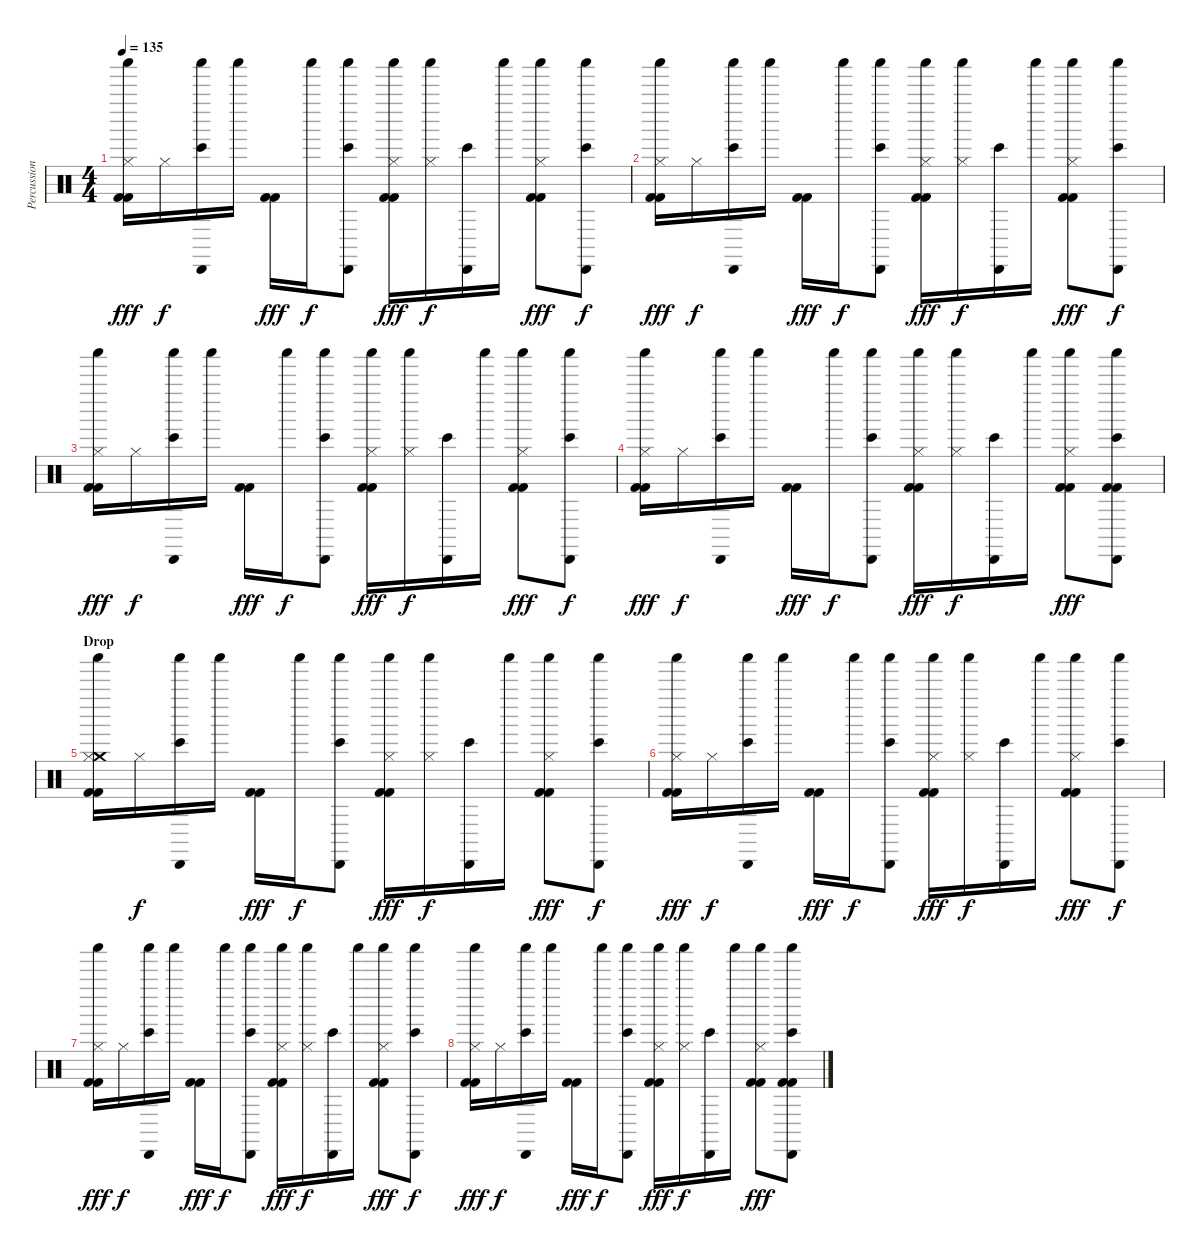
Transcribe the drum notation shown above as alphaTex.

\track ("Percussion" "Percussion") {instrument percussion}
\staff {score}
\articulation defaults
\ts (4 4)
\tempo 135
\clef neutral
\ks c
("Hi-Hat (closed)" "Kick (hit) 2" "Kick (hit) 2" "Shaker (hit)").16{dy fff} "Hi-Hat (closed)".16{dy f} ("Cabasa (hit)" "Bongo High (hit)" "Shaker (hit)").16 "Shaker (hit)".16 ("Kick (hit) 2" "Kick (hit) 2").16{dy fff} "Shaker (hit)".16{dy f} ("Cabasa (hit)" "Bongo High (hit)" "Shaker (hit)").8 ("Hi-Hat (closed)" "Kick (hit) 2" "Kick (hit) 2" "Shaker (hit)").16{dy fff} ("Hi-Hat (closed)" "Shaker (hit)").16{dy f} ("Cabasa (hit)" "Bongo High (hit)").16 "Shaker (hit)".16 ("Hi-Hat (closed)" "Kick (hit) 2" "Kick (hit) 2" "Shaker (hit)").8{dy fff} ("Cabasa (hit)" "Bongo High (hit)" "Shaker (hit)").8{dy f} |
("Hi-Hat (closed)" "Kick (hit) 2" "Kick (hit) 2" "Shaker (hit)").16{dy fff} "Hi-Hat (closed)".16{dy f} ("Cabasa (hit)" "Bongo High (hit)" "Shaker (hit)").16 "Shaker (hit)".16 ("Kick (hit) 2" "Kick (hit) 2").16{dy fff} "Shaker (hit)".16{dy f} ("Cabasa (hit)" "Bongo High (hit)" "Shaker (hit)").8 ("Hi-Hat (closed)" "Kick (hit) 2" "Kick (hit) 2" "Shaker (hit)").16{dy fff} ("Hi-Hat (closed)" "Shaker (hit)").16{dy f} ("Cabasa (hit)" "Bongo High (hit)").16 "Shaker (hit)".16 ("Hi-Hat (closed)" "Kick (hit) 2" "Kick (hit) 2" "Shaker (hit)").8{dy fff} ("Cabasa (hit)" "Bongo High (hit)" "Shaker (hit)").8{dy f} |
("Hi-Hat (closed)" "Kick (hit) 2" "Kick (hit) 2" "Shaker (hit)").16{dy fff} "Hi-Hat (closed)".16{dy f} ("Cabasa (hit)" "Bongo High (hit)" "Shaker (hit)").16 "Shaker (hit)".16 ("Kick (hit) 2" "Kick (hit) 2").16{dy fff} "Shaker (hit)".16{dy f} ("Cabasa (hit)" "Bongo High (hit)" "Shaker (hit)").8 ("Hi-Hat (closed)" "Kick (hit) 2" "Kick (hit) 2" "Shaker (hit)").16{dy fff} ("Hi-Hat (closed)" "Shaker (hit)").16{dy f} ("Cabasa (hit)" "Bongo High (hit)").16 "Shaker (hit)".16 ("Hi-Hat (closed)" "Kick (hit) 2" "Kick (hit) 2" "Shaker (hit)").8{dy fff} ("Cabasa (hit)" "Bongo High (hit)" "Shaker (hit)").8{dy f} |
("Hi-Hat (closed)" "Kick (hit) 2" "Kick (hit) 2" "Shaker (hit)").16{dy fff} "Hi-Hat (closed)".16{dy f} ("Cabasa (hit)" "Bongo High (hit)" "Shaker (hit)").16 "Shaker (hit)".16 ("Kick (hit) 2" "Kick (hit) 2").16{dy fff} "Shaker (hit)".16{dy f} ("Cabasa (hit)" "Bongo High (hit)" "Shaker (hit)").8 ("Hi-Hat (closed)" "Kick (hit) 2" "Kick (hit) 2" "Shaker (hit)").16{dy fff} ("Hi-Hat (closed)" "Shaker (hit)").16{dy f} ("Cabasa (hit)" "Bongo High (hit)").16 "Shaker (hit)".16 ("Hi-Hat (closed)" "Kick (hit) 2" "Kick (hit) 2" "Shaker (hit)").8{dy fff} ("Cabasa (hit)" "Bongo High (hit)" "Kick (hit) 2" "Kick (hit) 2" "Shaker (hit)").8 |
\section ("" "Drop")
("Crash medium (hit)" "Hi-Hat (closed)" "Kick (hit) 2" "Kick (hit) 2" "Shaker (hit)").16 "Hi-Hat (closed)".16{dy f} ("Cabasa (hit)" "Bongo High (hit)" "Shaker (hit)").16 "Shaker (hit)".16 ("Kick (hit) 2" "Kick (hit) 2").16{dy fff} "Shaker (hit)".16{dy f} ("Cabasa (hit)" "Bongo High (hit)" "Shaker (hit)").8 ("Hi-Hat (closed)" "Kick (hit) 2" "Kick (hit) 2" "Shaker (hit)").16{dy fff} ("Hi-Hat (closed)" "Shaker (hit)").16{dy f} ("Cabasa (hit)" "Bongo High (hit)").16 "Shaker (hit)".16 ("Hi-Hat (closed)" "Kick (hit) 2" "Kick (hit) 2" "Shaker (hit)").8{dy fff} ("Cabasa (hit)" "Bongo High (hit)" "Shaker (hit)").8{dy f} |
("Hi-Hat (closed)" "Kick (hit) 2" "Kick (hit) 2" "Shaker (hit)").16{dy fff} "Hi-Hat (closed)".16{dy f} ("Cabasa (hit)" "Bongo High (hit)" "Shaker (hit)").16 "Shaker (hit)".16 ("Kick (hit) 2" "Kick (hit) 2").16{dy fff} "Shaker (hit)".16{dy f} ("Cabasa (hit)" "Bongo High (hit)" "Shaker (hit)").8 ("Hi-Hat (closed)" "Kick (hit) 2" "Kick (hit) 2" "Shaker (hit)").16{dy fff} ("Hi-Hat (closed)" "Shaker (hit)").16{dy f} ("Cabasa (hit)" "Bongo High (hit)").16 "Shaker (hit)".16 ("Hi-Hat (closed)" "Kick (hit) 2" "Kick (hit) 2" "Shaker (hit)").8{dy fff} ("Cabasa (hit)" "Bongo High (hit)" "Shaker (hit)").8{dy f} |
("Hi-Hat (closed)" "Kick (hit) 2" "Kick (hit) 2" "Shaker (hit)").16{dy fff} "Hi-Hat (closed)".16{dy f} ("Cabasa (hit)" "Bongo High (hit)" "Shaker (hit)").16 "Shaker (hit)".16 ("Kick (hit) 2" "Kick (hit) 2").16{dy fff} "Shaker (hit)".16{dy f} ("Cabasa (hit)" "Bongo High (hit)" "Shaker (hit)").8 ("Hi-Hat (closed)" "Kick (hit) 2" "Kick (hit) 2" "Shaker (hit)").16{dy fff} ("Hi-Hat (closed)" "Shaker (hit)").16{dy f} ("Cabasa (hit)" "Bongo High (hit)").16 "Shaker (hit)".16 ("Hi-Hat (closed)" "Kick (hit) 2" "Kick (hit) 2" "Shaker (hit)").8{dy fff} ("Cabasa (hit)" "Bongo High (hit)" "Shaker (hit)").8{dy f} |
("Hi-Hat (closed)" "Kick (hit) 2" "Kick (hit) 2" "Shaker (hit)").16{dy fff} "Hi-Hat (closed)".16{dy f} ("Cabasa (hit)" "Bongo High (hit)" "Shaker (hit)").16 "Shaker (hit)".16 ("Kick (hit) 2" "Kick (hit) 2").16{dy fff} "Shaker (hit)".16{dy f} ("Cabasa (hit)" "Bongo High (hit)" "Shaker (hit)").8 ("Hi-Hat (closed)" "Kick (hit) 2" "Kick (hit) 2" "Shaker (hit)").16{dy fff} ("Hi-Hat (closed)" "Shaker (hit)").16{dy f} ("Cabasa (hit)" "Bongo High (hit)").16 "Shaker (hit)".16 ("Hi-Hat (closed)" "Kick (hit) 2" "Kick (hit) 2" "Shaker (hit)").8{dy fff} ("Cabasa (hit)" "Bongo High (hit)" "Kick (hit) 2" "Kick (hit) 2" "Shaker (hit)").8
